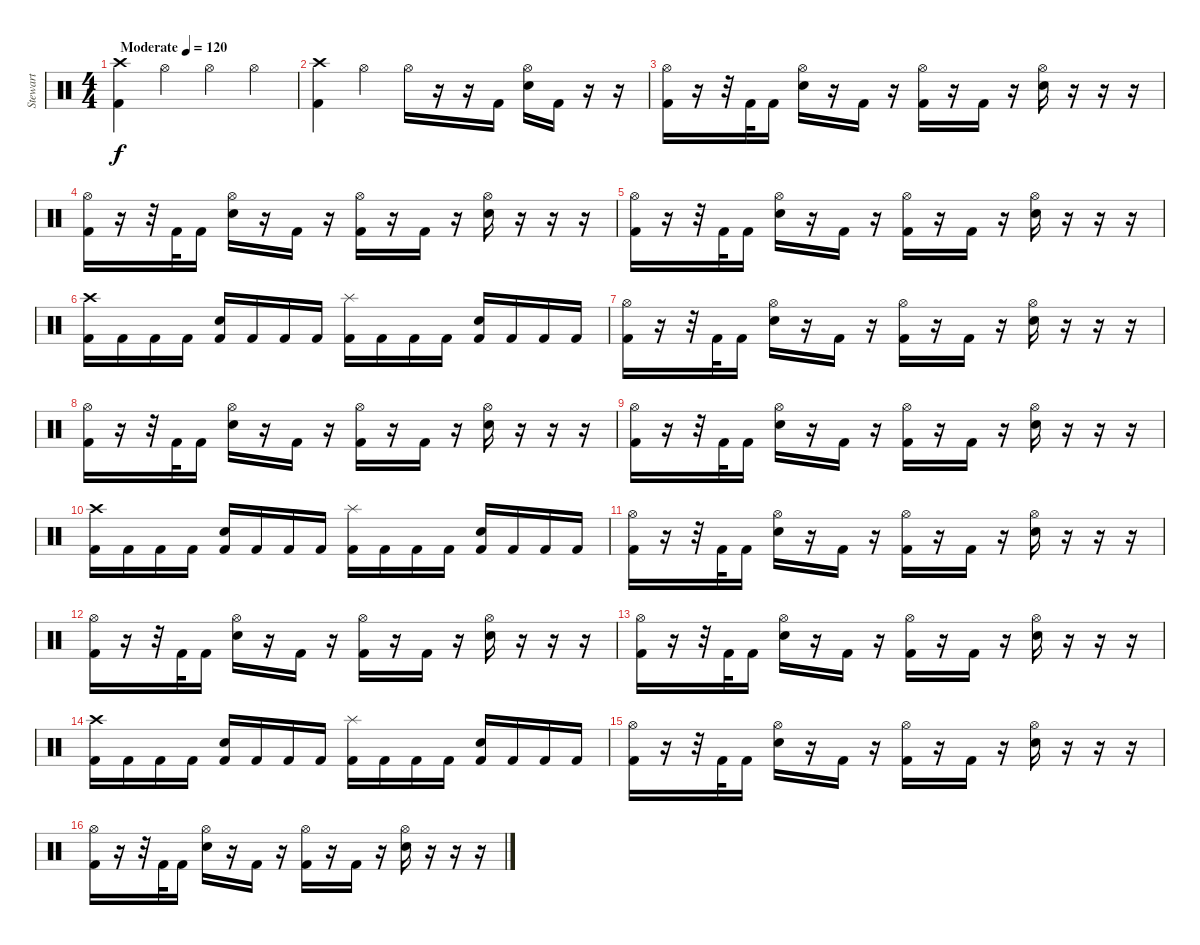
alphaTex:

\track ("Stewart" "Stewart") {instrument percussion}
\staff {score}
\articulation defaults
\ts (4 4)
\tempo (120 "Moderate")
\clef neutral
\ks c
("Crash high (hit)" "Kick (hit) 2").4{dy f} "Hi-Hat (open)".4 "Hi-Hat (open)".4 "Hi-Hat (open)".4 |
("Crash high (hit)" "Kick (hit) 2").4 "Hi-Hat (open)".4 "Hi-Hat (open)".16 r.16 r.16 "Kick (hit) 2".16 ("Hi-Hat (open)" "Electric Snare (hit)").16 "Kick (hit) 2".16 r.16 r.16 |
("Hi-Hat (open)" "Kick (hit) 2").16 r.16 r.32 "Kick (hit) 2".32 "Kick (hit) 2".16 ("Hi-Hat (open)" "Electric Snare (hit)").16 r.16 "Kick (hit) 2".16 r.16 ("Hi-Hat (open)" "Kick (hit) 2").16 r.16 "Kick (hit) 2".16 r.16 ("Hi-Hat (open)" "Electric Snare (hit)").16 r.16 r.16 r.16 |
("Hi-Hat (open)" "Kick (hit) 2").16 r.16 r.32 "Kick (hit) 2".32 "Kick (hit) 2".16 ("Hi-Hat (open)" "Electric Snare (hit)").16 r.16 "Kick (hit) 2".16 r.16 ("Hi-Hat (open)" "Kick (hit) 2").16 r.16 "Kick (hit) 2".16 r.16 ("Hi-Hat (open)" "Electric Snare (hit)").16 r.16 r.16 r.16 |
("Hi-Hat (open)" "Kick (hit) 2").16 r.16 r.32 "Kick (hit) 2".32 "Kick (hit) 2".16 ("Hi-Hat (open)" "Electric Snare (hit)").16 r.16 "Kick (hit) 2".16 r.16 ("Hi-Hat (open)" "Kick (hit) 2").16 r.16 "Kick (hit) 2".16 r.16 ("Hi-Hat (open)" "Electric Snare (hit)").16 r.16 r.16 r.16 |
("Crash high (hit)" "Kick (hit) 2").16 "Kick (hit) 2".16 "Kick (hit) 2".16 "Kick (hit) 2".16 ("Kick (hit) 2" "Electric Snare (hit)").16 "Kick (hit) 2".16 "Kick (hit) 2".16 "Kick (hit) 2".16 ("Splash (hit)" "Kick (hit) 2").16 "Kick (hit) 2".16 "Kick (hit) 2".16 "Kick (hit) 2".16 ("Kick (hit) 2" "Electric Snare (hit)").16 "Kick (hit) 2".16 "Kick (hit) 2".16 "Kick (hit) 2".16 |
("Hi-Hat (open)" "Kick (hit) 2").16 r.16 r.32 "Kick (hit) 2".32 "Kick (hit) 2".16 ("Hi-Hat (open)" "Electric Snare (hit)").16 r.16 "Kick (hit) 2".16 r.16 ("Hi-Hat (open)" "Kick (hit) 2").16 r.16 "Kick (hit) 2".16 r.16 ("Hi-Hat (open)" "Electric Snare (hit)").16 r.16 r.16 r.16 |
("Hi-Hat (open)" "Kick (hit) 2").16 r.16 r.32 "Kick (hit) 2".32 "Kick (hit) 2".16 ("Hi-Hat (open)" "Electric Snare (hit)").16 r.16 "Kick (hit) 2".16 r.16 ("Hi-Hat (open)" "Kick (hit) 2").16 r.16 "Kick (hit) 2".16 r.16 ("Hi-Hat (open)" "Electric Snare (hit)").16 r.16 r.16 r.16 |
("Hi-Hat (open)" "Kick (hit) 2").16 r.16 r.32 "Kick (hit) 2".32 "Kick (hit) 2".16 ("Hi-Hat (open)" "Electric Snare (hit)").16 r.16 "Kick (hit) 2".16 r.16 ("Hi-Hat (open)" "Kick (hit) 2").16 r.16 "Kick (hit) 2".16 r.16 ("Hi-Hat (open)" "Electric Snare (hit)").16 r.16 r.16 r.16 |
("Crash high (hit)" "Kick (hit) 2").16 "Kick (hit) 2".16 "Kick (hit) 2".16 "Kick (hit) 2".16 ("Kick (hit) 2" "Electric Snare (hit)").16 "Kick (hit) 2".16 "Kick (hit) 2".16 "Kick (hit) 2".16 ("Splash (hit)" "Kick (hit) 2").16 "Kick (hit) 2".16 "Kick (hit) 2".16 "Kick (hit) 2".16 ("Kick (hit) 2" "Electric Snare (hit)").16 "Kick (hit) 2".16 "Kick (hit) 2".16 "Kick (hit) 2".16 |
("Hi-Hat (open)" "Kick (hit) 2").16 r.16 r.32 "Kick (hit) 2".32 "Kick (hit) 2".16 ("Hi-Hat (open)" "Electric Snare (hit)").16 r.16 "Kick (hit) 2".16 r.16 ("Hi-Hat (open)" "Kick (hit) 2").16 r.16 "Kick (hit) 2".16 r.16 ("Hi-Hat (open)" "Electric Snare (hit)").16 r.16 r.16 r.16 |
("Hi-Hat (open)" "Kick (hit) 2").16 r.16 r.32 "Kick (hit) 2".32 "Kick (hit) 2".16 ("Hi-Hat (open)" "Electric Snare (hit)").16 r.16 "Kick (hit) 2".16 r.16 ("Hi-Hat (open)" "Kick (hit) 2").16 r.16 "Kick (hit) 2".16 r.16 ("Hi-Hat (open)" "Electric Snare (hit)").16 r.16 r.16 r.16 |
("Hi-Hat (open)" "Kick (hit) 2").16 r.16 r.32 "Kick (hit) 2".32 "Kick (hit) 2".16 ("Hi-Hat (open)" "Electric Snare (hit)").16 r.16 "Kick (hit) 2".16 r.16 ("Hi-Hat (open)" "Kick (hit) 2").16 r.16 "Kick (hit) 2".16 r.16 ("Hi-Hat (open)" "Electric Snare (hit)").16 r.16 r.16 r.16 |
("Crash high (hit)" "Kick (hit) 2").16 "Kick (hit) 2".16 "Kick (hit) 2".16 "Kick (hit) 2".16 ("Kick (hit) 2" "Electric Snare (hit)").16 "Kick (hit) 2".16 "Kick (hit) 2".16 "Kick (hit) 2".16 ("Splash (hit)" "Kick (hit) 2").16 "Kick (hit) 2".16 "Kick (hit) 2".16 "Kick (hit) 2".16 ("Kick (hit) 2" "Electric Snare (hit)").16 "Kick (hit) 2".16 "Kick (hit) 2".16 "Kick (hit) 2".16 |
("Hi-Hat (open)" "Kick (hit) 2").16 r.16 r.32 "Kick (hit) 2".32 "Kick (hit) 2".16 ("Hi-Hat (open)" "Electric Snare (hit)").16 r.16 "Kick (hit) 2".16 r.16 ("Hi-Hat (open)" "Kick (hit) 2").16 r.16 "Kick (hit) 2".16 r.16 ("Hi-Hat (open)" "Electric Snare (hit)").16 r.16 r.16 r.16 |
("Hi-Hat (open)" "Kick (hit) 2").16 r.16 r.32 "Kick (hit) 2".32 "Kick (hit) 2".16 ("Hi-Hat (open)" "Electric Snare (hit)").16 r.16 "Kick (hit) 2".16 r.16 ("Hi-Hat (open)" "Kick (hit) 2").16 r.16 "Kick (hit) 2".16 r.16 ("Hi-Hat (open)" "Electric Snare (hit)").16 r.16 r.16 r.16
